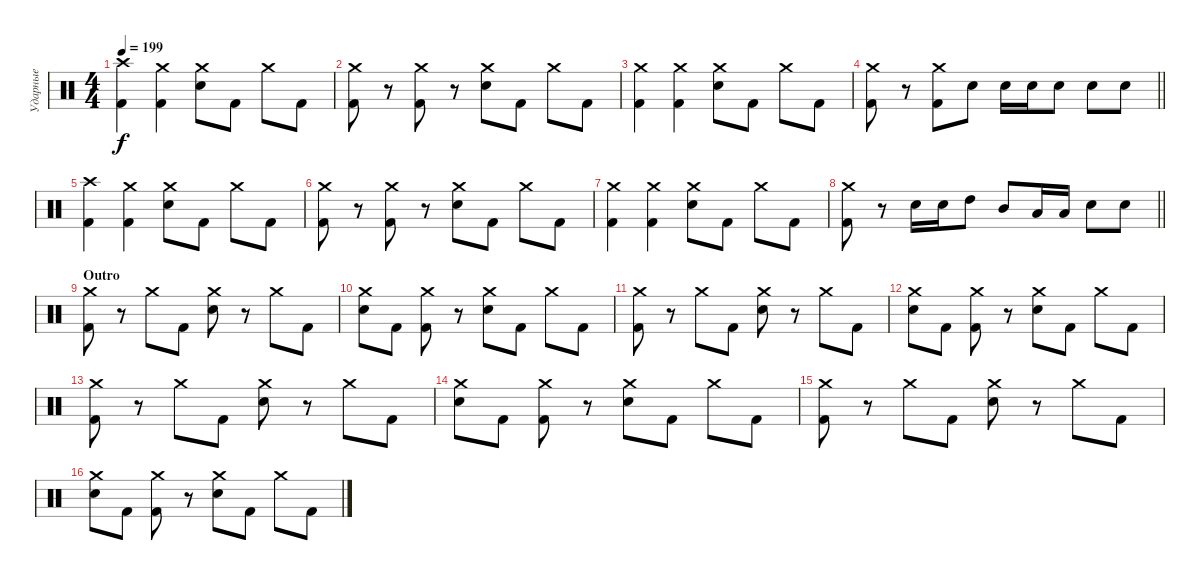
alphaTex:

\track ("Ударные" "Ударные") {instrument percussion}
\staff {score}
\articulation defaults
\ts (4 4)
\tempo 199
\clef neutral
\ks c
("Crash high (hit)" "Kick (hit) 2").4{dy f} ("Crash medium (hit)" "Kick (hit) 2").4 ("Crash medium (hit)" "Electric Snare (hit)").8 "Kick (hit) 2".8 "Crash medium (hit)".8 "Kick (hit) 2".8 |
("Crash medium (hit)" "Kick (hit) 2").8 r.8 ("Crash medium (hit)" "Kick (hit) 2").8 r.8 ("Crash medium (hit)" "Electric Snare (hit)").8 "Kick (hit) 2".8 "Crash medium (hit)".8 "Kick (hit) 2".8 |
("Crash medium (hit)" "Kick (hit) 2").4 ("Crash medium (hit)" "Kick (hit) 2").4 ("Crash medium (hit)" "Electric Snare (hit)").8 "Kick (hit) 2".8 "Crash medium (hit)".8 "Kick (hit) 2".8 |
\barLineRight lightlight
("Crash medium (hit)" "Kick (hit) 2").8 r.8 ("Crash medium (hit)" "Kick (hit) 2").8 "Electric Snare (hit)".8 "Electric Snare (hit)".16 "Electric Snare (hit)".16 "Electric Snare (hit)".8 "Electric Snare (hit)".8 "Electric Snare (hit)".8 |
("Crash high (hit)" "Kick (hit) 2").4 ("Crash medium (hit)" "Kick (hit) 2").4 ("Crash medium (hit)" "Electric Snare (hit)").8 "Kick (hit) 2".8 "Crash medium (hit)".8 "Kick (hit) 2".8 |
("Crash medium (hit)" "Kick (hit) 2").8 r.8 ("Crash medium (hit)" "Kick (hit) 2").8 r.8 ("Crash medium (hit)" "Electric Snare (hit)").8 "Kick (hit) 2".8 "Crash medium (hit)".8 "Kick (hit) 2".8 |
("Crash medium (hit)" "Kick (hit) 2").4 ("Crash medium (hit)" "Kick (hit) 2").4 ("Crash medium (hit)" "Electric Snare (hit)").8 "Kick (hit) 2".8 "Crash medium (hit)".8 "Kick (hit) 2".8 |
\barLineRight lightlight
("Crash medium (hit)" "Kick (hit) 2").8 r.8 "Electric Snare (hit)".16 "Electric Snare (hit)".16 "High Tom (hit)".8 "Mid Tom (hit)".8 "Low Tom (hit)".16 "Low Tom (hit)".16 "Electric Snare (hit)".8 "Electric Snare (hit)".8 |
\section ("" "Outro")
("Crash medium (hit)" "Kick (hit) 2").8 r.8 "Crash medium (hit)".8 "Kick (hit) 2".8 ("Crash medium (hit)" "Electric Snare (hit)").8 r.8 "Crash medium (hit)".8 "Kick (hit) 2".8 |
("Crash medium (hit)" "Electric Snare (hit)").8 "Kick (hit) 2".8 ("Crash medium (hit)" "Kick (hit) 2").8 r.8 ("Crash medium (hit)" "Electric Snare (hit)").8 "Kick (hit) 2".8 "Crash medium (hit)".8 "Kick (hit) 2".8 |
("Crash medium (hit)" "Kick (hit) 2").8 r.8 "Crash medium (hit)".8 "Kick (hit) 2".8 ("Crash medium (hit)" "Electric Snare (hit)").8 r.8 "Crash medium (hit)".8 "Kick (hit) 2".8 |
("Crash medium (hit)" "Electric Snare (hit)").8 "Kick (hit) 2".8 ("Crash medium (hit)" "Kick (hit) 2").8 r.8 ("Crash medium (hit)" "Electric Snare (hit)").8 "Kick (hit) 2".8 "Crash medium (hit)".8 "Kick (hit) 2".8 |
("Crash medium (hit)" "Kick (hit) 2").8 r.8 "Crash medium (hit)".8 "Kick (hit) 2".8 ("Crash medium (hit)" "Electric Snare (hit)").8 r.8 "Crash medium (hit)".8 "Kick (hit) 2".8 |
("Crash medium (hit)" "Electric Snare (hit)").8 "Kick (hit) 2".8 ("Crash medium (hit)" "Kick (hit) 2").8 r.8 ("Crash medium (hit)" "Electric Snare (hit)").8 "Kick (hit) 2".8 "Crash medium (hit)".8 "Kick (hit) 2".8 |
("Crash medium (hit)" "Kick (hit) 2").8 r.8 "Crash medium (hit)".8 "Kick (hit) 2".8 ("Crash medium (hit)" "Electric Snare (hit)").8 r.8 "Crash medium (hit)".8 "Kick (hit) 2".8 |
("Crash medium (hit)" "Electric Snare (hit)").8 "Kick (hit) 2".8 ("Crash medium (hit)" "Kick (hit) 2").8 r.8 ("Crash medium (hit)" "Electric Snare (hit)").8 "Kick (hit) 2".8 "Crash medium (hit)".8 "Kick (hit) 2".8
